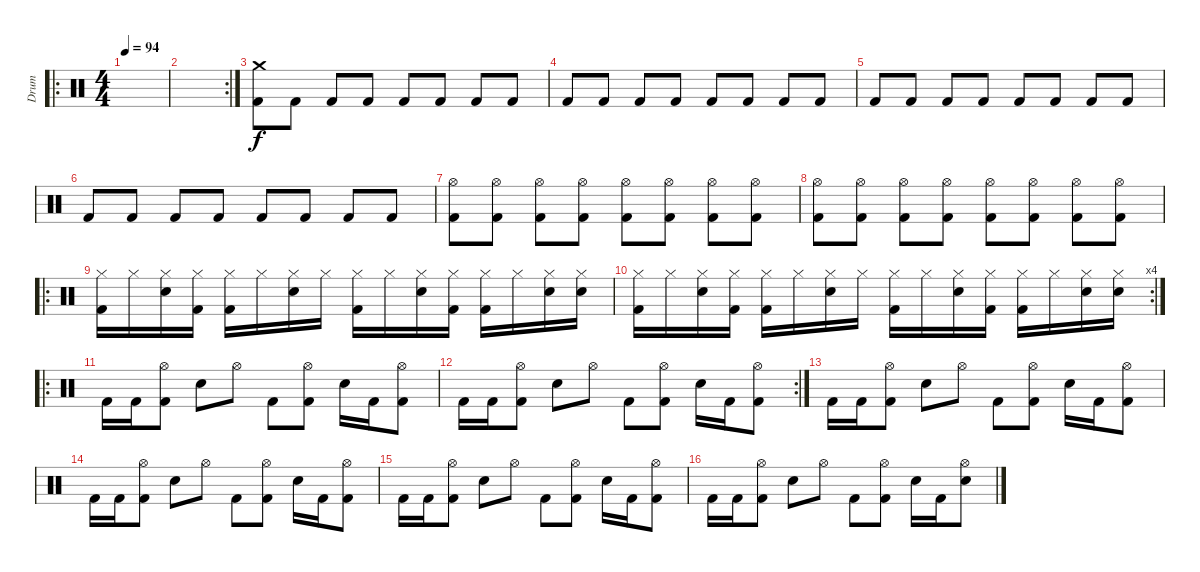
\track ("Drum" "Drum") {instrument percussion}
\staff {score}
\articulation defaults
\ro
\ts (4 4)
\tempo 94
\clef neutral
\ks c
|
\rc 2
|
("Kick (hit) 2" "Crash medium (hit)").8 "Kick (hit) 2".8 "Kick (hit) 2".8 "Kick (hit) 2".8 "Kick (hit) 2".8 "Kick (hit) 2".8 "Kick (hit) 2".8 "Kick (hit) 2".8 |
"Kick (hit) 2".8 "Kick (hit) 2".8 "Kick (hit) 2".8 "Kick (hit) 2".8 "Kick (hit) 2".8 "Kick (hit) 2".8 "Kick (hit) 2".8 "Kick (hit) 2".8 |
"Kick (hit) 2".8 "Kick (hit) 2".8 "Kick (hit) 2".8 "Kick (hit) 2".8 "Kick (hit) 2".8 "Kick (hit) 2".8 "Kick (hit) 2".8 "Kick (hit) 2".8 |
"Kick (hit) 2".8 "Kick (hit) 2".8 "Kick (hit) 2".8 "Kick (hit) 2".8 "Kick (hit) 2".8 "Kick (hit) 2".8 "Kick (hit) 2".8 "Kick (hit) 2".8 |
("Kick (hit) 2" "Hi-Hat (open)").8 ("Kick (hit) 2" "Hi-Hat (open)").8 ("Kick (hit) 2" "Hi-Hat (open)").8 ("Kick (hit) 2" "Hi-Hat (open)").8 ("Kick (hit) 2" "Hi-Hat (open)").8 ("Kick (hit) 2" "Hi-Hat (open)").8 ("Kick (hit) 2" "Hi-Hat (open)").8 ("Kick (hit) 2" "Hi-Hat (open)").8 |
("Kick (hit) 2" "Hi-Hat (open)").8 ("Kick (hit) 2" "Hi-Hat (open)").8 ("Kick (hit) 2" "Hi-Hat (open)").8 ("Kick (hit) 2" "Hi-Hat (open)").8 ("Kick (hit) 2" "Hi-Hat (open)").8 ("Kick (hit) 2" "Hi-Hat (open)").8 ("Kick (hit) 2" "Hi-Hat (open)").8 ("Kick (hit) 2" "Hi-Hat (open)").8 |
\ro
("Kick (hit) 2" "Hi-Hat (closed)").16 "Hi-Hat (closed)".16 ("Snare (hit) 2" "Hi-Hat (closed)").16 ("Kick (hit) 2" "Hi-Hat (closed)").16 ("Kick (hit) 2" "Hi-Hat (closed)").16 "Hi-Hat (closed)".16 ("Snare (hit) 2" "Hi-Hat (closed)").16 "Hi-Hat (closed)".16 ("Kick (hit) 2" "Hi-Hat (closed)").16 "Hi-Hat (closed)".16 ("Snare (hit) 2" "Hi-Hat (closed)").16 ("Kick (hit) 2" "Hi-Hat (closed)").16 ("Kick (hit) 2" "Hi-Hat (closed)").16 "Hi-Hat (closed)".16 ("Snare (hit) 2" "Hi-Hat (closed)").16 ("Snare (hit) 2" "Hi-Hat (closed)").16 |
\rc 4
("Kick (hit) 2" "Hi-Hat (closed)").16 "Hi-Hat (closed)".16 ("Snare (hit) 2" "Hi-Hat (closed)").16 ("Kick (hit) 2" "Hi-Hat (closed)").16 ("Kick (hit) 2" "Hi-Hat (closed)").16 "Hi-Hat (closed)".16 ("Snare (hit) 2" "Hi-Hat (closed)").16 "Hi-Hat (closed)".16 ("Kick (hit) 2" "Hi-Hat (closed)").16 "Hi-Hat (closed)".16 ("Snare (hit) 2" "Hi-Hat (closed)").16 ("Kick (hit) 2" "Hi-Hat (closed)").16 ("Kick (hit) 2" "Hi-Hat (closed)").16 "Hi-Hat (closed)".16 ("Snare (hit) 2" "Hi-Hat (closed)").16 ("Snare (hit) 2" "Hi-Hat (closed)").16 |
\ro "Kick (hit) 2".16 "Kick (hit) 2".16
("Kick (hit) 2" "Hi-Hat (open)").8 "Snare (hit) 2".8 "Hi-Hat (open)".8 "Kick (hit) 2".8 ("Kick (hit) 2" "Hi-Hat (open)").8 "Snare (hit) 2".16 "Kick (hit) 2".16 ("Kick (hit) 2" "Hi-Hat (open)").8 |
\rc 2 "Kick (hit) 2".16 "Kick (hit) 2".16
("Kick (hit) 2" "Hi-Hat (open)").8 "Snare (hit) 2".8 "Hi-Hat (open)".8 "Kick (hit) 2".8 ("Kick (hit) 2" "Hi-Hat (open)").8 "Snare (hit) 2".16 "Kick (hit) 2".16 ("Kick (hit) 2" "Hi-Hat (open)").8 |
"Kick (hit) 2".16 "Kick (hit) 2".16 ("Kick (hit) 2" "Hi-Hat (open)").8 "Snare (hit) 2".8 "Hi-Hat (open)".8 "Kick (hit) 2".8 ("Kick (hit) 2" "Hi-Hat (open)").8 "Snare (hit) 2".16 "Kick (hit) 2".16 ("Kick (hit) 2" "Hi-Hat (open)").8 |
"Kick (hit) 2".16 "Kick (hit) 2".16 ("Kick (hit) 2" "Hi-Hat (open)").8 "Snare (hit) 2".8 "Hi-Hat (open)".8 "Kick (hit) 2".8 ("Kick (hit) 2" "Hi-Hat (open)").8 "Snare (hit) 2".16 "Kick (hit) 2".16 ("Kick (hit) 2" "Hi-Hat (open)").8 |
"Kick (hit) 2".16 "Kick (hit) 2".16 ("Kick (hit) 2" "Hi-Hat (open)").8 "Snare (hit) 2".8 "Hi-Hat (open)".8 "Kick (hit) 2".8 ("Kick (hit) 2" "Hi-Hat (open)").8 "Snare (hit) 2".16 "Kick (hit) 2".16 ("Kick (hit) 2" "Hi-Hat (open)").8 |
"Kick (hit) 2".16 "Kick (hit) 2".16 ("Kick (hit) 2" "Hi-Hat (open)").8 "Snare (hit) 2".8 "Hi-Hat (open)".8 "Kick (hit) 2".8 ("Kick (hit) 2" "Hi-Hat (open)").8 "Snare (hit) 2".16 "Kick (hit) 2".16 ("Snare (hit) 2" "Hi-Hat (open)").8
